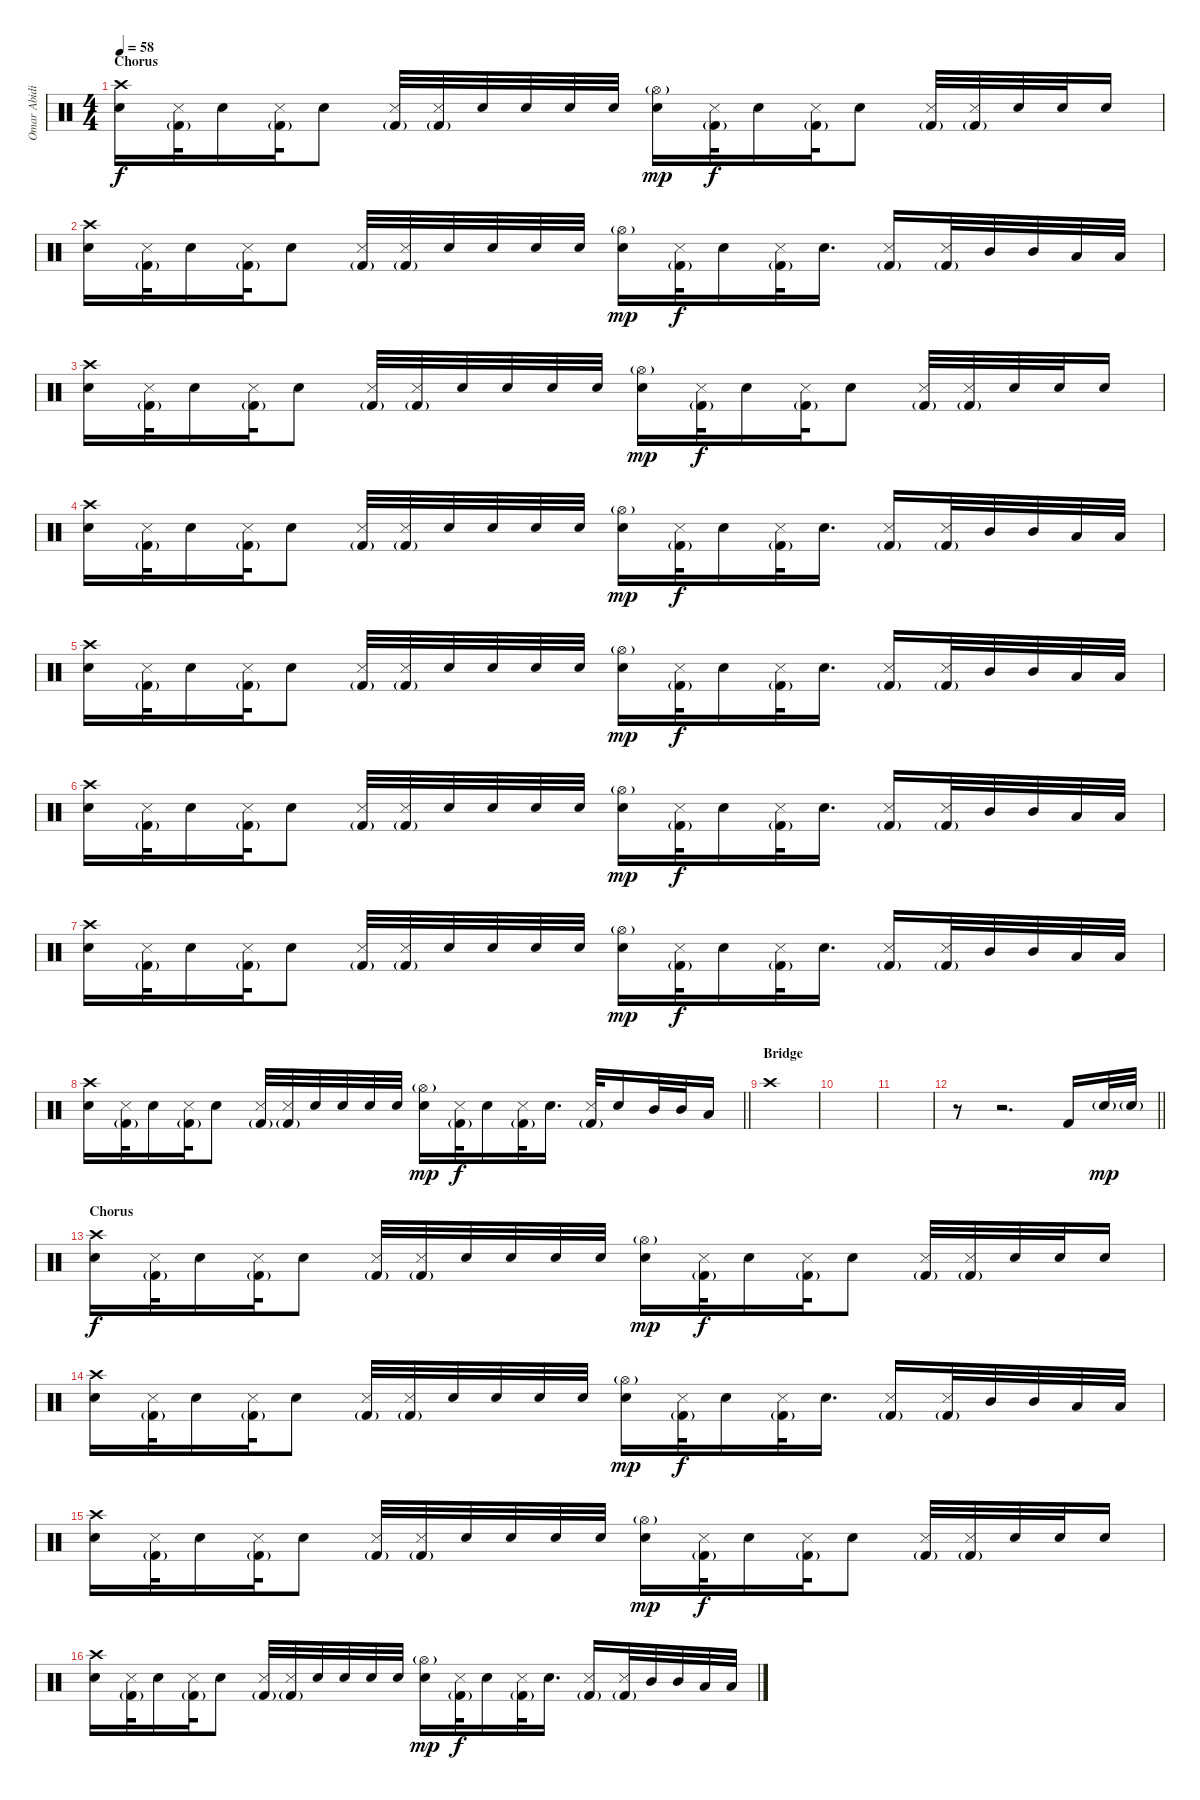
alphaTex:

\track ("Omar Abidi" "Omar Abidi") {instrument percussion}
\staff {score}
\articulation defaults
\ts (4 4)
\section ("" "Chorus")
\tempo 58
\clef neutral
\ks c
("Crash high (hit)" "Electric Snare (hit)").16{dy f} ("Metronome (hit)" "Kick (hit) 2"{g}).32 "Electric Snare (hit)".16 ("Metronome (hit)" "Kick (hit) 2"{g}).32 "Electric Snare (hit)".8 ("Metronome (hit)" "Kick (hit) 2"{g}).32 ("Metronome (hit)" "Kick (hit) 2"{g}).32 "Electric Snare (hit)".32 "Electric Snare (hit)".32 "Electric Snare (hit)".32 "Electric Snare (hit)".32 ("Hi-Hat (open)"{g} "Electric Snare (hit)").16{dy mp} ("Metronome (hit)" "Kick (hit) 2"{g}).32{dy f} "Electric Snare (hit)".16 ("Metronome (hit)" "Kick (hit) 2"{g}).32 "Electric Snare (hit)".8 ("Metronome (hit)" "Kick (hit) 2"{g}).32 ("Metronome (hit)" "Kick (hit) 2"{g}).32 "Electric Snare (hit)".32 "Electric Snare (hit)".32 "Electric Snare (hit)".16 |
("Crash high (hit)" "Electric Snare (hit)").16 ("Metronome (hit)" "Kick (hit) 2"{g}).32 "Electric Snare (hit)".16 ("Metronome (hit)" "Kick (hit) 2"{g}).32 "Electric Snare (hit)".8 ("Metronome (hit)" "Kick (hit) 2"{g}).32 ("Metronome (hit)" "Kick (hit) 2"{g}).32 "Electric Snare (hit)".32 "Electric Snare (hit)".32 "Electric Snare (hit)".32 "Electric Snare (hit)".32 ("Hi-Hat (open)"{g} "Electric Snare (hit)").16{dy mp} ("Metronome (hit)" "Kick (hit) 2"{g}).32{dy f} "Electric Snare (hit)".16 ("Metronome (hit)" "Kick (hit) 2"{g}).32 "Electric Snare (hit)".16{d} ("Metronome (hit)" "Kick (hit) 2"{g}).16 ("Metronome (hit)" "Kick (hit) 2"{g}).32 "Mid Tom (hit)".32 "Mid Tom (hit)".32 "Low Tom (hit)".32 "Low Tom (hit)".32 |
("Crash high (hit)" "Electric Snare (hit)").16 ("Metronome (hit)" "Kick (hit) 2"{g}).32 "Electric Snare (hit)".16 ("Metronome (hit)" "Kick (hit) 2"{g}).32 "Electric Snare (hit)".8 ("Metronome (hit)" "Kick (hit) 2"{g}).32 ("Metronome (hit)" "Kick (hit) 2"{g}).32 "Electric Snare (hit)".32 "Electric Snare (hit)".32 "Electric Snare (hit)".32 "Electric Snare (hit)".32 ("Hi-Hat (open)"{g} "Electric Snare (hit)").16{dy mp} ("Metronome (hit)" "Kick (hit) 2"{g}).32{dy f} "Electric Snare (hit)".16 ("Metronome (hit)" "Kick (hit) 2"{g}).32 "Electric Snare (hit)".8 ("Metronome (hit)" "Kick (hit) 2"{g}).32 ("Metronome (hit)" "Kick (hit) 2"{g}).32 "Electric Snare (hit)".32 "Electric Snare (hit)".32 "Electric Snare (hit)".16 |
("Crash high (hit)" "Electric Snare (hit)").16 ("Metronome (hit)" "Kick (hit) 2"{g}).32 "Electric Snare (hit)".16 ("Metronome (hit)" "Kick (hit) 2"{g}).32 "Electric Snare (hit)".8 ("Metronome (hit)" "Kick (hit) 2"{g}).32 ("Metronome (hit)" "Kick (hit) 2"{g}).32 "Electric Snare (hit)".32 "Electric Snare (hit)".32 "Electric Snare (hit)".32 "Electric Snare (hit)".32 ("Hi-Hat (open)"{g} "Electric Snare (hit)").16{dy mp} ("Metronome (hit)" "Kick (hit) 2"{g}).32{dy f} "Electric Snare (hit)".16 ("Metronome (hit)" "Kick (hit) 2"{g}).32 "Electric Snare (hit)".16{d} ("Metronome (hit)" "Kick (hit) 2"{g}).16 ("Metronome (hit)" "Kick (hit) 2"{g}).32 "Mid Tom (hit)".32 "Mid Tom (hit)".32 "Low Tom (hit)".32 "Low Tom (hit)".32 |
("Crash high (hit)" "Electric Snare (hit)").16 ("Metronome (hit)" "Kick (hit) 2"{g}).32 "Electric Snare (hit)".16 ("Metronome (hit)" "Kick (hit) 2"{g}).32 "Electric Snare (hit)".8 ("Metronome (hit)" "Kick (hit) 2"{g}).32 ("Metronome (hit)" "Kick (hit) 2"{g}).32 "Electric Snare (hit)".32 "Electric Snare (hit)".32 "Electric Snare (hit)".32 "Electric Snare (hit)".32 ("Hi-Hat (open)"{g} "Electric Snare (hit)").16{dy mp} ("Metronome (hit)" "Kick (hit) 2"{g}).32{dy f} "Electric Snare (hit)".16 ("Metronome (hit)" "Kick (hit) 2"{g}).32 "Electric Snare (hit)".16{d} ("Metronome (hit)" "Kick (hit) 2"{g}).16 ("Metronome (hit)" "Kick (hit) 2"{g}).32 "Mid Tom (hit)".32 "Mid Tom (hit)".32 "Low Tom (hit)".32 "Low Tom (hit)".32 |
("Crash high (hit)" "Electric Snare (hit)").16 ("Metronome (hit)" "Kick (hit) 2"{g}).32 "Electric Snare (hit)".16 ("Metronome (hit)" "Kick (hit) 2"{g}).32 "Electric Snare (hit)".8 ("Metronome (hit)" "Kick (hit) 2"{g}).32 ("Metronome (hit)" "Kick (hit) 2"{g}).32 "Electric Snare (hit)".32 "Electric Snare (hit)".32 "Electric Snare (hit)".32 "Electric Snare (hit)".32 ("Hi-Hat (open)"{g} "Electric Snare (hit)").16{dy mp} ("Metronome (hit)" "Kick (hit) 2"{g}).32{dy f} "Electric Snare (hit)".16 ("Metronome (hit)" "Kick (hit) 2"{g}).32 "Electric Snare (hit)".16{d} ("Metronome (hit)" "Kick (hit) 2"{g}).16 ("Metronome (hit)" "Kick (hit) 2"{g}).32 "Mid Tom (hit)".32 "Mid Tom (hit)".32 "Low Tom (hit)".32 "Low Tom (hit)".32 |
("Crash high (hit)" "Electric Snare (hit)").16 ("Metronome (hit)" "Kick (hit) 2"{g}).32 "Electric Snare (hit)".16 ("Metronome (hit)" "Kick (hit) 2"{g}).32 "Electric Snare (hit)".8 ("Metronome (hit)" "Kick (hit) 2"{g}).32 ("Metronome (hit)" "Kick (hit) 2"{g}).32 "Electric Snare (hit)".32 "Electric Snare (hit)".32 "Electric Snare (hit)".32 "Electric Snare (hit)".32 ("Hi-Hat (open)"{g} "Electric Snare (hit)").16{dy mp} ("Metronome (hit)" "Kick (hit) 2"{g}).32{dy f} "Electric Snare (hit)".16 ("Metronome (hit)" "Kick (hit) 2"{g}).32 "Electric Snare (hit)".16{d} ("Metronome (hit)" "Kick (hit) 2"{g}).16 ("Metronome (hit)" "Kick (hit) 2"{g}).32 "Mid Tom (hit)".32 "Mid Tom (hit)".32 "Low Tom (hit)".32 "Low Tom (hit)".32 |
\barLineRight lightlight
("Crash high (hit)" "Electric Snare (hit)").16 ("Metronome (hit)" "Kick (hit) 2"{g}).32 "Electric Snare (hit)".16 ("Metronome (hit)" "Kick (hit) 2"{g}).32 "Electric Snare (hit)".8 ("Metronome (hit)" "Kick (hit) 2"{g}).32 ("Metronome (hit)" "Kick (hit) 2"{g}).32 "Electric Snare (hit)".32 "Electric Snare (hit)".32 "Electric Snare (hit)".32 "Electric Snare (hit)".32 ("Hi-Hat (open)"{g} "Electric Snare (hit)").16{dy mp} ("Metronome (hit)" "Kick (hit) 2"{g}).32{dy f} "Electric Snare (hit)".16 ("Metronome (hit)" "Kick (hit) 2"{g}).32 "Electric Snare (hit)".16{d} ("Metronome (hit)" "Kick (hit) 2"{g}).32 "Electric Snare (hit)".16 "Mid Tom (hit)".32 "Mid Tom (hit)".32 "Low Tom (hit)".16 |
\section ("" "Bridge")
"Crash high (hit)".1 |
|
|
\barLineRight lightlight
r.8 r.2{d} "Kick (hit) 2".16 "Electric Snare (hit)"{g}.32{dy mp} "Electric Snare (hit)"{g}.32 |
\section ("" "Chorus")
("Crash high (hit)" "Electric Snare (hit)").16{dy f} ("Metronome (hit)" "Kick (hit) 2"{g}).32 "Electric Snare (hit)".16 ("Metronome (hit)" "Kick (hit) 2"{g}).32 "Electric Snare (hit)".8 ("Metronome (hit)" "Kick (hit) 2"{g}).32 ("Metronome (hit)" "Kick (hit) 2"{g}).32 "Electric Snare (hit)".32 "Electric Snare (hit)".32 "Electric Snare (hit)".32 "Electric Snare (hit)".32 ("Hi-Hat (open)"{g} "Electric Snare (hit)").16{dy mp} ("Metronome (hit)" "Kick (hit) 2"{g}).32{dy f} "Electric Snare (hit)".16 ("Metronome (hit)" "Kick (hit) 2"{g}).32 "Electric Snare (hit)".8 ("Metronome (hit)" "Kick (hit) 2"{g}).32 ("Metronome (hit)" "Kick (hit) 2"{g}).32 "Electric Snare (hit)".32 "Electric Snare (hit)".32 "Electric Snare (hit)".16 |
("Crash high (hit)" "Electric Snare (hit)").16 ("Metronome (hit)" "Kick (hit) 2"{g}).32 "Electric Snare (hit)".16 ("Metronome (hit)" "Kick (hit) 2"{g}).32 "Electric Snare (hit)".8 ("Metronome (hit)" "Kick (hit) 2"{g}).32 ("Metronome (hit)" "Kick (hit) 2"{g}).32 "Electric Snare (hit)".32 "Electric Snare (hit)".32 "Electric Snare (hit)".32 "Electric Snare (hit)".32 ("Hi-Hat (open)"{g} "Electric Snare (hit)").16{dy mp} ("Metronome (hit)" "Kick (hit) 2"{g}).32{dy f} "Electric Snare (hit)".16 ("Metronome (hit)" "Kick (hit) 2"{g}).32 "Electric Snare (hit)".16{d} ("Metronome (hit)" "Kick (hit) 2"{g}).16 ("Metronome (hit)" "Kick (hit) 2"{g}).32 "Mid Tom (hit)".32 "Mid Tom (hit)".32 "Low Tom (hit)".32 "Low Tom (hit)".32 |
("Crash high (hit)" "Electric Snare (hit)").16 ("Metronome (hit)" "Kick (hit) 2"{g}).32 "Electric Snare (hit)".16 ("Metronome (hit)" "Kick (hit) 2"{g}).32 "Electric Snare (hit)".8 ("Metronome (hit)" "Kick (hit) 2"{g}).32 ("Metronome (hit)" "Kick (hit) 2"{g}).32 "Electric Snare (hit)".32 "Electric Snare (hit)".32 "Electric Snare (hit)".32 "Electric Snare (hit)".32 ("Hi-Hat (open)"{g} "Electric Snare (hit)").16{dy mp} ("Metronome (hit)" "Kick (hit) 2"{g}).32{dy f} "Electric Snare (hit)".16 ("Metronome (hit)" "Kick (hit) 2"{g}).32 "Electric Snare (hit)".8 ("Metronome (hit)" "Kick (hit) 2"{g}).32 ("Metronome (hit)" "Kick (hit) 2"{g}).32 "Electric Snare (hit)".32 "Electric Snare (hit)".32 "Electric Snare (hit)".16 |
("Crash high (hit)" "Electric Snare (hit)").16 ("Metronome (hit)" "Kick (hit) 2"{g}).32 "Electric Snare (hit)".16 ("Metronome (hit)" "Kick (hit) 2"{g}).32 "Electric Snare (hit)".8 ("Metronome (hit)" "Kick (hit) 2"{g}).32 ("Metronome (hit)" "Kick (hit) 2"{g}).32 "Electric Snare (hit)".32 "Electric Snare (hit)".32 "Electric Snare (hit)".32 "Electric Snare (hit)".32 ("Hi-Hat (open)"{g} "Electric Snare (hit)").16{dy mp} ("Metronome (hit)" "Kick (hit) 2"{g}).32{dy f} "Electric Snare (hit)".16 ("Metronome (hit)" "Kick (hit) 2"{g}).32 "Electric Snare (hit)".16{d} ("Metronome (hit)" "Kick (hit) 2"{g}).16 ("Metronome (hit)" "Kick (hit) 2"{g}).32 "Mid Tom (hit)".32 "Mid Tom (hit)".32 "Low Tom (hit)".32 "Low Tom (hit)".32
